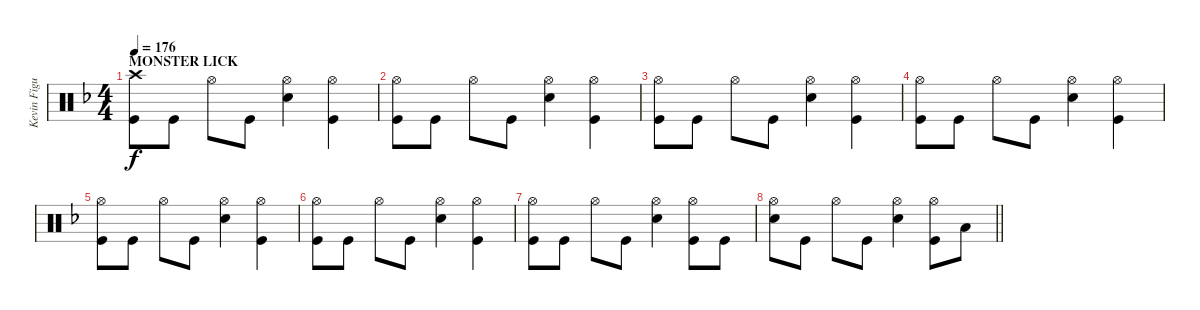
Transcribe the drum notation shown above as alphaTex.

\track ("Kevin Figueiredo - Drums" "Kevin Figu") {instrument percussion}
\staff {score}
\articulation defaults
\ts (4 4)
\section ("" "MONSTER LICK")
\tempo 176
\clef neutral
\ks f
("Crash high (hit)" "Kick (hit)").8{dy f} "Kick (hit)".8 "Hi-Hat (open)".8 "Kick (hit)".8 ("Hi-Hat (open)" "Snare (hit) 2").4 ("Hi-Hat (open)" "Kick (hit)").4 |
("Hi-Hat (open)" "Kick (hit)").8 "Kick (hit)".8 "Hi-Hat (open)".8 "Kick (hit)".8 ("Hi-Hat (open)" "Snare (hit) 2").4 ("Hi-Hat (open)" "Kick (hit)").4 |
("Hi-Hat (open)" "Kick (hit)").8 "Kick (hit)".8 "Hi-Hat (open)".8 "Kick (hit)".8 ("Hi-Hat (open)" "Snare (hit) 2").4 ("Hi-Hat (open)" "Kick (hit)").4 |
("Hi-Hat (open)" "Kick (hit)").8 "Kick (hit)".8 "Hi-Hat (open)".8 "Kick (hit)".8 ("Hi-Hat (open)" "Snare (hit) 2").4 ("Hi-Hat (open)" "Kick (hit)").4 |
("Hi-Hat (open)" "Kick (hit)").8 "Kick (hit)".8 "Hi-Hat (open)".8 "Kick (hit)".8 ("Hi-Hat (open)" "Snare (hit) 2").4 ("Hi-Hat (open)" "Kick (hit)").4 |
("Hi-Hat (open)" "Kick (hit)").8 "Kick (hit)".8 "Hi-Hat (open)".8 "Kick (hit)".8 ("Hi-Hat (open)" "Snare (hit) 2").4 ("Hi-Hat (open)" "Kick (hit)").4 |
("Hi-Hat (open)" "Kick (hit)").8 "Kick (hit)".8 "Hi-Hat (open)".8 "Kick (hit)".8 ("Hi-Hat (open)" "Snare (hit) 2").4 ("Hi-Hat (open)" "Kick (hit)").8 "Kick (hit)".8 |
\barLineRight lightlight
("Hi-Hat (open)" "Snare (hit) 2").8 "Kick (hit)".8 "Hi-Hat (open)".8 "Kick (hit)".8 ("Hi-Hat (open)" "Snare (hit) 2").4 ("Hi-Hat (open)" "Kick (hit)").8 "Low Floor Tom (hit)".8
